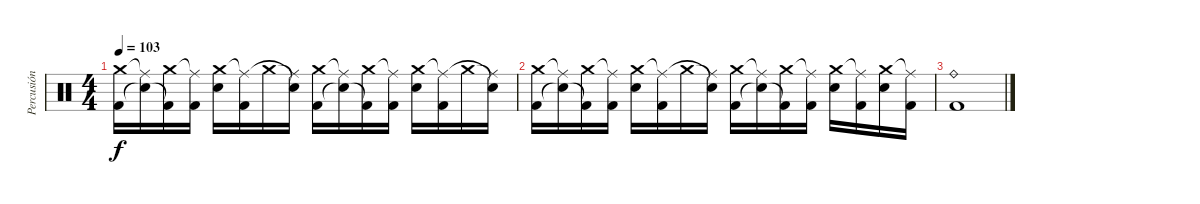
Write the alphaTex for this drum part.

\track ("Percusión" "Percusión") {instrument percussion}
\staff {score}
\articulation defaults
\ts (4 4)
\tempo 103
\clef neutral
\ks c
("Kick (hit) 2" "Crash medium (hit)").16{dy f} ("Snare (hit)"{t} "Ride (middle)"{t}).16 ("Kick (hit) 2"{t} "Crash medium (hit)").16 ("Kick (hit) 2" "Ride (middle)"{t}).16 ("Electric Snare (hit)" "Crash medium (hit)").16 ("Kick (hit) 2" "Ride (middle)"{t}).16 "Crash medium (hit)".16 ("Snare (hit)"{t} "Ride (middle)"{t}).16 ("Kick (hit) 2" "Crash medium (hit)").16 ("Snare (hit)"{t} "Ride (middle)"{t}).16 ("Kick (hit) 2"{t} "Crash medium (hit)").16 ("Kick (hit) 2" "Ride (middle)"{t}).16 ("Electric Snare (hit)" "Crash medium (hit)").16 ("Kick (hit) 2" "Ride (middle)"{t}).16 "Crash medium (hit)".16 ("Snare (hit)"{t} "Ride (middle)"{t}).16 |
("Kick (hit) 2" "Crash medium (hit)").16 ("Snare (hit)"{t} "Ride (middle)"{t}).16 ("Kick (hit) 2"{t} "Crash medium (hit)").16 ("Kick (hit) 2" "Ride (middle)"{t}).16 ("Electric Snare (hit)" "Crash medium (hit)").16 ("Kick (hit) 2" "Ride (middle)"{t}).16 "Crash medium (hit)".16 ("Snare (hit)"{t} "Ride (middle)"{t}).16 ("Kick (hit) 2" "Crash medium (hit)").16 ("Snare (hit)"{t} "Ride (middle)"{t}).16 ("Kick (hit) 2"{t} "Crash medium (hit)").16 ("Kick (hit) 2" "Ride (middle)"{t}).16 ("Electric Snare (hit)" "Crash medium (hit)").16 ("Kick (hit) 2" "Ride (middle)"{t}).16 ("Electric Snare (hit)" "Crash medium (hit)").16 ("Kick (hit) 2" "Ride (middle)"{t}).16 |
("Ride (bell)" "Kick (hit) 2").1
